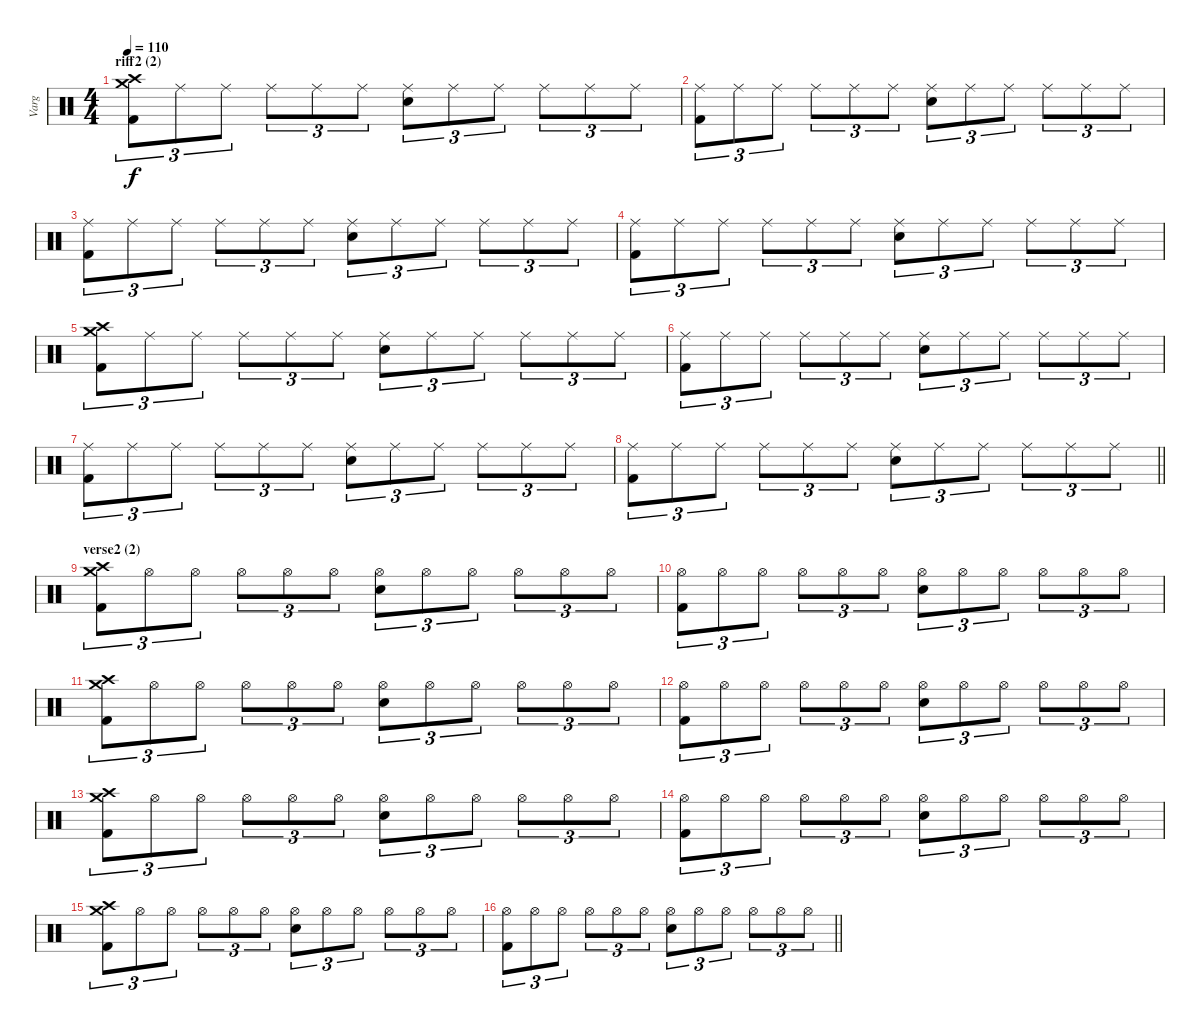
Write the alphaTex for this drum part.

\track ("Varg" "Varg") {instrument percussion}
\staff {score}
\articulation defaults
\ts (4 4)
\section ("" "riff2 (2)")
\tempo 110
\clef neutral
\ks c
("Crash high (hit)" "Crash medium (hit)" "Kick (hit) 2").8{tu (3 2) dy f} "Ride (middle)".8{tu (3 2)} "Ride (middle)".8{tu (3 2)} "Ride (middle)".8{tu (3 2)} "Ride (middle)".8{tu (3 2)} "Ride (middle)".8{tu (3 2)} ("Ride (middle)" "Snare (hit) 2").8{tu (3 2)} "Ride (middle)".8{tu (3 2)} "Ride (middle)".8{tu (3 2)} "Ride (middle)".8{tu (3 2)} "Ride (middle)".8{tu (3 2)} "Ride (middle)".8{tu (3 2)} |
("Ride (middle)" "Kick (hit) 2").8{tu (3 2)} "Ride (middle)".8{tu (3 2)} "Ride (middle)".8{tu (3 2)} "Ride (middle)".8{tu (3 2)} "Ride (middle)".8{tu (3 2)} "Ride (middle)".8{tu (3 2)} ("Ride (middle)" "Snare (hit) 2").8{tu (3 2)} "Ride (middle)".8{tu (3 2)} "Ride (middle)".8{tu (3 2)} "Ride (middle)".8{tu (3 2)} "Ride (middle)".8{tu (3 2)} "Ride (middle)".8{tu (3 2)} |
("Ride (middle)" "Kick (hit) 2").8{tu (3 2)} "Ride (middle)".8{tu (3 2)} "Ride (middle)".8{tu (3 2)} "Ride (middle)".8{tu (3 2)} "Ride (middle)".8{tu (3 2)} "Ride (middle)".8{tu (3 2)} ("Ride (middle)" "Snare (hit) 2").8{tu (3 2)} "Ride (middle)".8{tu (3 2)} "Ride (middle)".8{tu (3 2)} "Ride (middle)".8{tu (3 2)} "Ride (middle)".8{tu (3 2)} "Ride (middle)".8{tu (3 2)} |
("Ride (middle)" "Kick (hit) 2").8{tu (3 2)} "Ride (middle)".8{tu (3 2)} "Ride (middle)".8{tu (3 2)} "Ride (middle)".8{tu (3 2)} "Ride (middle)".8{tu (3 2)} "Ride (middle)".8{tu (3 2)} ("Ride (middle)" "Snare (hit) 2").8{tu (3 2)} "Ride (middle)".8{tu (3 2)} "Ride (middle)".8{tu (3 2)} "Ride (middle)".8{tu (3 2)} "Ride (middle)".8{tu (3 2)} "Ride (middle)".8{tu (3 2)} |
("Crash high (hit)" "Crash medium (hit)" "Kick (hit) 2").8{tu (3 2)} "Ride (middle)".8{tu (3 2)} "Ride (middle)".8{tu (3 2)} "Ride (middle)".8{tu (3 2)} "Ride (middle)".8{tu (3 2)} "Ride (middle)".8{tu (3 2)} ("Ride (middle)" "Snare (hit) 2").8{tu (3 2)} "Ride (middle)".8{tu (3 2)} "Ride (middle)".8{tu (3 2)} "Ride (middle)".8{tu (3 2)} "Ride (middle)".8{tu (3 2)} "Ride (middle)".8{tu (3 2)} |
("Ride (middle)" "Kick (hit) 2").8{tu (3 2)} "Ride (middle)".8{tu (3 2)} "Ride (middle)".8{tu (3 2)} "Ride (middle)".8{tu (3 2)} "Ride (middle)".8{tu (3 2)} "Ride (middle)".8{tu (3 2)} ("Ride (middle)" "Snare (hit) 2").8{tu (3 2)} "Ride (middle)".8{tu (3 2)} "Ride (middle)".8{tu (3 2)} "Ride (middle)".8{tu (3 2)} "Ride (middle)".8{tu (3 2)} "Ride (middle)".8{tu (3 2)} |
("Ride (middle)" "Kick (hit) 2").8{tu (3 2)} "Ride (middle)".8{tu (3 2)} "Ride (middle)".8{tu (3 2)} "Ride (middle)".8{tu (3 2)} "Ride (middle)".8{tu (3 2)} "Ride (middle)".8{tu (3 2)} ("Ride (middle)" "Snare (hit) 2").8{tu (3 2)} "Ride (middle)".8{tu (3 2)} "Ride (middle)".8{tu (3 2)} "Ride (middle)".8{tu (3 2)} "Ride (middle)".8{tu (3 2)} "Ride (middle)".8{tu (3 2)} |
\barLineRight lightlight
("Ride (middle)" "Kick (hit) 2").8{tu (3 2)} "Ride (middle)".8{tu (3 2)} "Ride (middle)".8{tu (3 2)} "Ride (middle)".8{tu (3 2)} "Ride (middle)".8{tu (3 2)} "Ride (middle)".8{tu (3 2)} ("Ride (middle)" "Snare (hit) 2").8{tu (3 2)} "Ride (middle)".8{tu (3 2)} "Ride (middle)".8{tu (3 2)} "Ride (middle)".8{tu (3 2)} "Ride (middle)".8{tu (3 2)} "Ride (middle)".8{tu (3 2)} |
\section ("" "verse2 (2)")
("Crash high (hit)" "Crash medium (hit)" "Kick (hit) 2").8{tu (3 2)} "Hi-Hat (open)".8{tu (3 2)} "Hi-Hat (open)".8{tu (3 2)} "Hi-Hat (open)".8{tu (3 2)} "Hi-Hat (open)".8{tu (3 2)} "Hi-Hat (open)".8{tu (3 2)} ("Hi-Hat (open)" "Snare (hit) 2").8{tu (3 2)} "Hi-Hat (open)".8{tu (3 2)} "Hi-Hat (open)".8{tu (3 2)} "Hi-Hat (open)".8{tu (3 2)} "Hi-Hat (open)".8{tu (3 2)} "Hi-Hat (open)".8{tu (3 2)} |
("Hi-Hat (open)" "Kick (hit) 2").8{tu (3 2)} "Hi-Hat (open)".8{tu (3 2)} "Hi-Hat (open)".8{tu (3 2)} "Hi-Hat (open)".8{tu (3 2)} "Hi-Hat (open)".8{tu (3 2)} "Hi-Hat (open)".8{tu (3 2)} ("Hi-Hat (open)" "Snare (hit) 2").8{tu (3 2)} "Hi-Hat (open)".8{tu (3 2)} "Hi-Hat (open)".8{tu (3 2)} "Hi-Hat (open)".8{tu (3 2)} "Hi-Hat (open)".8{tu (3 2)} "Hi-Hat (open)".8{tu (3 2)} |
("Crash high (hit)" "Crash medium (hit)" "Kick (hit) 2").8{tu (3 2)} "Hi-Hat (open)".8{tu (3 2)} "Hi-Hat (open)".8{tu (3 2)} "Hi-Hat (open)".8{tu (3 2)} "Hi-Hat (open)".8{tu (3 2)} "Hi-Hat (open)".8{tu (3 2)} ("Hi-Hat (open)" "Snare (hit) 2").8{tu (3 2)} "Hi-Hat (open)".8{tu (3 2)} "Hi-Hat (open)".8{tu (3 2)} "Hi-Hat (open)".8{tu (3 2)} "Hi-Hat (open)".8{tu (3 2)} "Hi-Hat (open)".8{tu (3 2)} |
("Hi-Hat (open)" "Kick (hit) 2").8{tu (3 2)} "Hi-Hat (open)".8{tu (3 2)} "Hi-Hat (open)".8{tu (3 2)} "Hi-Hat (open)".8{tu (3 2)} "Hi-Hat (open)".8{tu (3 2)} "Hi-Hat (open)".8{tu (3 2)} ("Hi-Hat (open)" "Snare (hit) 2").8{tu (3 2)} "Hi-Hat (open)".8{tu (3 2)} "Hi-Hat (open)".8{tu (3 2)} "Hi-Hat (open)".8{tu (3 2)} "Hi-Hat (open)".8{tu (3 2)} "Hi-Hat (open)".8{tu (3 2)} |
("Crash high (hit)" "Crash medium (hit)" "Kick (hit) 2").8{tu (3 2)} "Hi-Hat (open)".8{tu (3 2)} "Hi-Hat (open)".8{tu (3 2)} "Hi-Hat (open)".8{tu (3 2)} "Hi-Hat (open)".8{tu (3 2)} "Hi-Hat (open)".8{tu (3 2)} ("Hi-Hat (open)" "Snare (hit) 2").8{tu (3 2)} "Hi-Hat (open)".8{tu (3 2)} "Hi-Hat (open)".8{tu (3 2)} "Hi-Hat (open)".8{tu (3 2)} "Hi-Hat (open)".8{tu (3 2)} "Hi-Hat (open)".8{tu (3 2)} |
("Hi-Hat (open)" "Kick (hit) 2").8{tu (3 2)} "Hi-Hat (open)".8{tu (3 2)} "Hi-Hat (open)".8{tu (3 2)} "Hi-Hat (open)".8{tu (3 2)} "Hi-Hat (open)".8{tu (3 2)} "Hi-Hat (open)".8{tu (3 2)} ("Hi-Hat (open)" "Snare (hit) 2").8{tu (3 2)} "Hi-Hat (open)".8{tu (3 2)} "Hi-Hat (open)".8{tu (3 2)} "Hi-Hat (open)".8{tu (3 2)} "Hi-Hat (open)".8{tu (3 2)} "Hi-Hat (open)".8{tu (3 2)} |
("Crash high (hit)" "Crash medium (hit)" "Kick (hit) 2").8{tu (3 2)} "Hi-Hat (open)".8{tu (3 2)} "Hi-Hat (open)".8{tu (3 2)} "Hi-Hat (open)".8{tu (3 2)} "Hi-Hat (open)".8{tu (3 2)} "Hi-Hat (open)".8{tu (3 2)} ("Hi-Hat (open)" "Snare (hit) 2").8{tu (3 2)} "Hi-Hat (open)".8{tu (3 2)} "Hi-Hat (open)".8{tu (3 2)} "Hi-Hat (open)".8{tu (3 2)} "Hi-Hat (open)".8{tu (3 2)} "Hi-Hat (open)".8{tu (3 2)} |
\barLineRight lightlight
("Hi-Hat (open)" "Kick (hit) 2").8{tu (3 2)} "Hi-Hat (open)".8{tu (3 2)} "Hi-Hat (open)".8{tu (3 2)} "Hi-Hat (open)".8{tu (3 2)} "Hi-Hat (open)".8{tu (3 2)} "Hi-Hat (open)".8{tu (3 2)} ("Hi-Hat (open)" "Snare (hit) 2").8{tu (3 2)} "Hi-Hat (open)".8{tu (3 2)} "Hi-Hat (open)".8{tu (3 2)} "Hi-Hat (open)".8{tu (3 2)} "Hi-Hat (open)".8{tu (3 2)} "Hi-Hat (open)".8{tu (3 2)}
